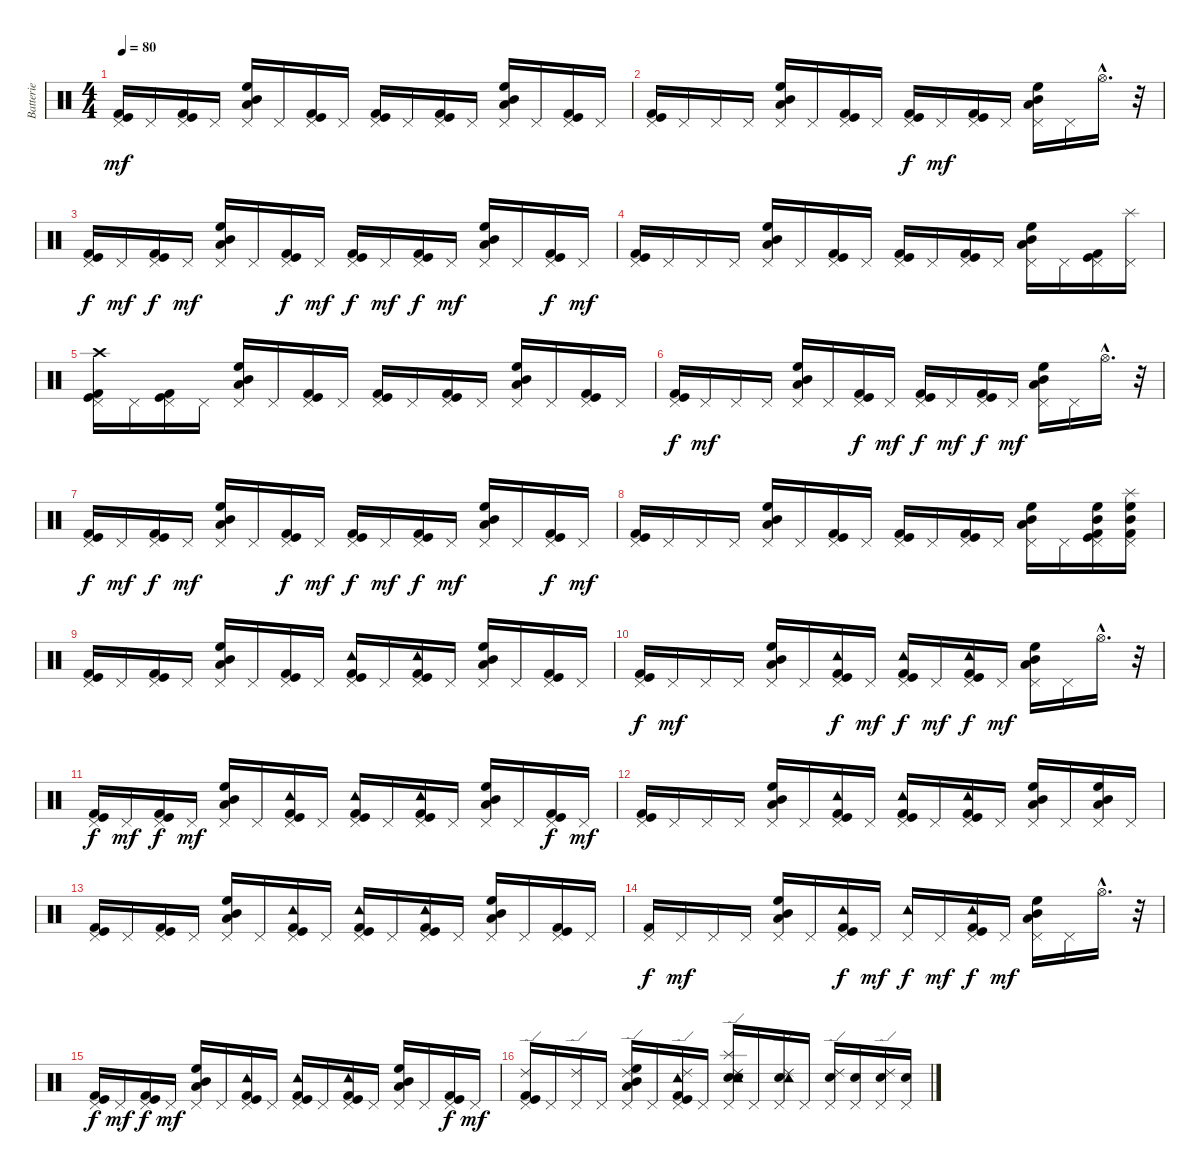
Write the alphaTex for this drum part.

\track ("Batterie" "Batterie") {instrument percussion}
\staff {score}
\articulation defaults
\ts (4 4)
\tempo 80
\clef neutral
\ks c
("Pedal Hi-Hat (hit)" "Kick (hit)" "Kick (hit) 2").16{dy mf} "Pedal Hi-Hat (hit)".16 ("Pedal Hi-Hat (hit)" "Kick (hit)" "Kick (hit) 2").16 "Pedal Hi-Hat (hit)".16 ("Pedal Hi-Hat (hit)" "High Floor Tom (hit)" "Mid Tom (hit)" "Low Tom (hit)").16 "Pedal Hi-Hat (hit)".16 ("Pedal Hi-Hat (hit)" "Kick (hit)" "Kick (hit) 2").16 "Pedal Hi-Hat (hit)".16 ("Pedal Hi-Hat (hit)" "Kick (hit)" "Kick (hit) 2").16 "Pedal Hi-Hat (hit)".16 ("Pedal Hi-Hat (hit)" "Kick (hit)" "Kick (hit) 2").16 "Pedal Hi-Hat (hit)".16 ("Pedal Hi-Hat (hit)" "High Floor Tom (hit)" "Mid Tom (hit)" "Low Tom (hit)").16 "Pedal Hi-Hat (hit)".16 ("Pedal Hi-Hat (hit)" "Kick (hit)" "Kick (hit) 2").16 "Pedal Hi-Hat (hit)".16 |
("Pedal Hi-Hat (hit)" "Kick (hit)" "Kick (hit) 2").16 "Pedal Hi-Hat (hit)".16 "Pedal Hi-Hat (hit)".16 "Pedal Hi-Hat (hit)".16 ("Pedal Hi-Hat (hit)" "High Floor Tom (hit)" "Mid Tom (hit)" "Low Tom (hit)").16 "Pedal Hi-Hat (hit)".16 ("Pedal Hi-Hat (hit)" "Kick (hit)" "Kick (hit) 2").16 "Pedal Hi-Hat (hit)".16 ("Pedal Hi-Hat (hit)" "Kick (hit)" "Kick (hit) 2").16{dy f} "Pedal Hi-Hat (hit)".16{dy mf} ("Pedal Hi-Hat (hit)" "Kick (hit)" "Kick (hit) 2").16 "Pedal Hi-Hat (hit)".16 ("Pedal Hi-Hat (hit)" "High Floor Tom (hit)" "Mid Tom (hit)" "Low Tom (hit)").16 "Pedal Hi-Hat (hit)".16 "Hi-Hat (open)"{hac}.16{d} r.32 |
("Pedal Hi-Hat (hit)" "Kick (hit)" "Kick (hit) 2").16{dy f} "Pedal Hi-Hat (hit)".16{dy mf} ("Pedal Hi-Hat (hit)" "Kick (hit)" "Kick (hit) 2").16{dy f} "Pedal Hi-Hat (hit)".16{dy mf} ("Pedal Hi-Hat (hit)" "High Floor Tom (hit)" "Mid Tom (hit)" "Low Tom (hit)").16 "Pedal Hi-Hat (hit)".16 ("Pedal Hi-Hat (hit)" "Kick (hit)" "Kick (hit) 2").16{dy f} "Pedal Hi-Hat (hit)".16{dy mf} ("Pedal Hi-Hat (hit)" "Kick (hit)" "Kick (hit) 2").16{dy f} "Pedal Hi-Hat (hit)".16{dy mf} ("Pedal Hi-Hat (hit)" "Kick (hit)" "Kick (hit) 2").16{dy f} "Pedal Hi-Hat (hit)".16{dy mf} ("Pedal Hi-Hat (hit)" "High Floor Tom (hit)" "Mid Tom (hit)" "Low Tom (hit)").16 "Pedal Hi-Hat (hit)".16 ("Pedal Hi-Hat (hit)" "Kick (hit)" "Kick (hit) 2").16{dy f} "Pedal Hi-Hat (hit)".16{dy mf} |
("Pedal Hi-Hat (hit)" "Kick (hit)" "Kick (hit) 2").16 "Pedal Hi-Hat (hit)".16 "Pedal Hi-Hat (hit)".16 "Pedal Hi-Hat (hit)".16 ("Pedal Hi-Hat (hit)" "High Floor Tom (hit)" "Mid Tom (hit)" "Low Tom (hit)").16 "Pedal Hi-Hat (hit)".16 ("Pedal Hi-Hat (hit)" "Kick (hit)" "Kick (hit) 2").16 "Pedal Hi-Hat (hit)".16 ("Pedal Hi-Hat (hit)" "Kick (hit)" "Kick (hit) 2").16 "Pedal Hi-Hat (hit)".16 ("Pedal Hi-Hat (hit)" "Kick (hit)" "Kick (hit) 2").16 "Pedal Hi-Hat (hit)".16 ("Pedal Hi-Hat (hit)" "High Floor Tom (hit)" "Mid Tom (hit)" "Low Tom (hit)").16 "Pedal Hi-Hat (hit)".16 ("Pedal Hi-Hat (hit)" "Kick (hit)" "Kick (hit) 2").16 ("Pedal Hi-Hat (hit)" "Splash (hit)").16 |
("Pedal Hi-Hat (hit)" "Crash high (hit)" "Kick (hit)" "Kick (hit) 2").16 "Pedal Hi-Hat (hit)".16 ("Pedal Hi-Hat (hit)" "Kick (hit)" "Kick (hit) 2").16 "Pedal Hi-Hat (hit)".16 ("Pedal Hi-Hat (hit)" "High Floor Tom (hit)" "Mid Tom (hit)" "Low Tom (hit)").16 "Pedal Hi-Hat (hit)".16 ("Pedal Hi-Hat (hit)" "Kick (hit)" "Kick (hit) 2").16 "Pedal Hi-Hat (hit)".16 ("Pedal Hi-Hat (hit)" "Kick (hit)" "Kick (hit) 2").16 "Pedal Hi-Hat (hit)".16 ("Pedal Hi-Hat (hit)" "Kick (hit)" "Kick (hit) 2").16 "Pedal Hi-Hat (hit)".16 ("Pedal Hi-Hat (hit)" "High Floor Tom (hit)" "Mid Tom (hit)" "Low Tom (hit)").16 "Pedal Hi-Hat (hit)".16 ("Pedal Hi-Hat (hit)" "Kick (hit)" "Kick (hit) 2").16 "Pedal Hi-Hat (hit)".16 |
("Pedal Hi-Hat (hit)" "Kick (hit)" "Kick (hit) 2").16{dy f} "Pedal Hi-Hat (hit)".16{dy mf} "Pedal Hi-Hat (hit)".16 "Pedal Hi-Hat (hit)".16 ("Low Tom (hit)" "Mid Tom (hit)" "High Floor Tom (hit)" "Pedal Hi-Hat (hit)").16 "Pedal Hi-Hat (hit)".16 ("Pedal Hi-Hat (hit)" "Kick (hit)" "Kick (hit) 2").16{dy f} "Pedal Hi-Hat (hit)".16{dy mf} ("Pedal Hi-Hat (hit)" "Kick (hit)" "Kick (hit) 2").16{dy f} "Pedal Hi-Hat (hit)".16{dy mf} ("Pedal Hi-Hat (hit)" "Kick (hit)" "Kick (hit) 2").16{dy f} "Pedal Hi-Hat (hit)".16{dy mf} ("Pedal Hi-Hat (hit)" "High Floor Tom (hit)" "Mid Tom (hit)" "Low Tom (hit)").16 "Pedal Hi-Hat (hit)".16 "Hi-Hat (open)"{hac}.16{d} r.32 |
("Pedal Hi-Hat (hit)" "Kick (hit)" "Kick (hit) 2").16{dy f} "Pedal Hi-Hat (hit)".16{dy mf} ("Pedal Hi-Hat (hit)" "Kick (hit)" "Kick (hit) 2").16{dy f} "Pedal Hi-Hat (hit)".16{dy mf} ("Pedal Hi-Hat (hit)" "Mid Tom (hit)" "High Floor Tom (hit)" "Low Tom (hit)").16 "Pedal Hi-Hat (hit)".16 ("Pedal Hi-Hat (hit)" "Kick (hit)" "Kick (hit) 2").16{dy f} "Pedal Hi-Hat (hit)".16{dy mf} ("Pedal Hi-Hat (hit)" "Kick (hit)" "Kick (hit) 2").16{dy f} "Pedal Hi-Hat (hit)".16{dy mf} ("Pedal Hi-Hat (hit)" "Kick (hit)" "Kick (hit) 2").16{dy f} "Pedal Hi-Hat (hit)".16{dy mf} ("Pedal Hi-Hat (hit)" "High Floor Tom (hit)" "Mid Tom (hit)" "Low Tom (hit)").16 "Pedal Hi-Hat (hit)".16 ("Pedal Hi-Hat (hit)" "Kick (hit)" "Kick (hit) 2").16{dy f} "Pedal Hi-Hat (hit)".16{dy mf} |
("Pedal Hi-Hat (hit)" "Kick (hit)" "Kick (hit) 2").16 "Pedal Hi-Hat (hit)".16 "Pedal Hi-Hat (hit)".16 "Pedal Hi-Hat (hit)".16 ("Pedal Hi-Hat (hit)" "High Floor Tom (hit)" "Mid Tom (hit)" "Low Tom (hit)").16 "Pedal Hi-Hat (hit)".16 ("Pedal Hi-Hat (hit)" "Kick (hit)" "Kick (hit) 2").16 "Pedal Hi-Hat (hit)".16 ("Pedal Hi-Hat (hit)" "Kick (hit)" "Kick (hit) 2").16 "Pedal Hi-Hat (hit)".16 ("Pedal Hi-Hat (hit)" "Kick (hit)" "Kick (hit) 2").16 "Pedal Hi-Hat (hit)".16 ("Pedal Hi-Hat (hit)" "High Floor Tom (hit)" "Mid Tom (hit)" "Low Tom (hit)").16 "Pedal Hi-Hat (hit)".16 ("Pedal Hi-Hat (hit)" "High Floor Tom (hit)" "Mid Tom (hit)" "Kick (hit)" "Kick (hit) 2").16 ("Pedal Hi-Hat (hit)" "High Floor Tom (hit)" "Mid Tom (hit)" "Splash (hit)" "Kick (hit) 2").16 |
("Pedal Hi-Hat (hit)" "Kick (hit)" "Kick (hit) 2").16 "Pedal Hi-Hat (hit)".16 ("Pedal Hi-Hat (hit)" "Kick (hit)" "Kick (hit) 2").16 "Pedal Hi-Hat (hit)".16 ("Pedal Hi-Hat (hit)" "High Floor Tom (hit)" "Mid Tom (hit)" "Low Tom (hit)").16 "Pedal Hi-Hat (hit)".16 ("Pedal Hi-Hat (hit)" "Kick (hit)" "Kick (hit) 2").16 "Pedal Hi-Hat (hit)".16 ("Pedal Hi-Hat (hit)" "Tambourine (hit)" "Kick (hit)" "Kick (hit) 2").16 "Pedal Hi-Hat (hit)".16 ("Pedal Hi-Hat (hit)" "Tambourine (hit)" "Kick (hit)" "Kick (hit) 2").16 "Pedal Hi-Hat (hit)".16 ("Pedal Hi-Hat (hit)" "Mid Tom (hit)" "High Floor Tom (hit)" "Low Tom (hit)").16 "Pedal Hi-Hat (hit)".16 ("Pedal Hi-Hat (hit)" "Kick (hit)" "Kick (hit) 2").16 "Pedal Hi-Hat (hit)".16 |
("Pedal Hi-Hat (hit)" "Kick (hit)" "Kick (hit) 2").16{dy f} "Pedal Hi-Hat (hit)".16{dy mf} "Pedal Hi-Hat (hit)".16 "Pedal Hi-Hat (hit)".16 ("Pedal Hi-Hat (hit)" "High Floor Tom (hit)" "Mid Tom (hit)" "Low Tom (hit)").16 "Pedal Hi-Hat (hit)".16 ("Pedal Hi-Hat (hit)" "Tambourine (hit)" "Kick (hit)" "Kick (hit) 2").16{dy f} "Pedal Hi-Hat (hit)".16{dy mf} ("Pedal Hi-Hat (hit)" "Tambourine (hit)" "Kick (hit)" "Kick (hit) 2").16{dy f} "Pedal Hi-Hat (hit)".16{dy mf} ("Pedal Hi-Hat (hit)" "Tambourine (hit)" "Kick (hit)" "Kick (hit) 2").16{dy f} "Pedal Hi-Hat (hit)".16{dy mf} ("Pedal Hi-Hat (hit)" "High Floor Tom (hit)" "Mid Tom (hit)" "Low Tom (hit)").16 "Pedal Hi-Hat (hit)".16 "Hi-Hat (open)"{hac}.16{d} r.32 |
("Pedal Hi-Hat (hit)" "Kick (hit)" "Kick (hit) 2").16{dy f} "Pedal Hi-Hat (hit)".16{dy mf} ("Pedal Hi-Hat (hit)" "Kick (hit)" "Kick (hit) 2").16{dy f} "Pedal Hi-Hat (hit)".16{dy mf} ("Pedal Hi-Hat (hit)" "High Floor Tom (hit)" "Mid Tom (hit)" "Low Tom (hit)").16 "Pedal Hi-Hat (hit)".16 ("Pedal Hi-Hat (hit)" "Tambourine (hit)" "Kick (hit)" "Kick (hit) 2").16 "Pedal Hi-Hat (hit)".16 ("Pedal Hi-Hat (hit)" "Tambourine (hit)" "Kick (hit)" "Kick (hit) 2").16 "Pedal Hi-Hat (hit)".16 ("Pedal Hi-Hat (hit)" "Tambourine (hit)" "Kick (hit)" "Kick (hit) 2").16 "Pedal Hi-Hat (hit)".16 ("Pedal Hi-Hat (hit)" "High Floor Tom (hit)" "Mid Tom (hit)" "Low Tom (hit)").16 "Pedal Hi-Hat (hit)".16 ("Pedal Hi-Hat (hit)" "Kick (hit)" "Kick (hit) 2").16{dy f} "Pedal Hi-Hat (hit)".16{dy mf} |
("Pedal Hi-Hat (hit)" "Kick (hit)" "Kick (hit) 2").16 "Pedal Hi-Hat (hit)".16 "Pedal Hi-Hat (hit)".16 "Pedal Hi-Hat (hit)".16 ("Pedal Hi-Hat (hit)" "High Floor Tom (hit)" "Mid Tom (hit)" "Low Tom (hit)").16 "Pedal Hi-Hat (hit)".16 ("Pedal Hi-Hat (hit)" "Tambourine (hit)" "Kick (hit)" "Kick (hit) 2").16 "Pedal Hi-Hat (hit)".16 ("Pedal Hi-Hat (hit)" "Tambourine (hit)" "Kick (hit)" "Kick (hit) 2").16 "Pedal Hi-Hat (hit)".16 ("Pedal Hi-Hat (hit)" "Tambourine (hit)" "Kick (hit)" "Kick (hit) 2").16 "Pedal Hi-Hat (hit)".16 ("Pedal Hi-Hat (hit)" "High Floor Tom (hit)" "Mid Tom (hit)" "Low Tom (hit)").16 "Pedal Hi-Hat (hit)".16 ("Pedal Hi-Hat (hit)" "High Floor Tom (hit)" "Mid Tom (hit)" "Low Tom (hit)").16 "Pedal Hi-Hat (hit)".16 |
("Pedal Hi-Hat (hit)" "Kick (hit)" "Kick (hit) 2").16 "Pedal Hi-Hat (hit)".16 ("Pedal Hi-Hat (hit)" "Kick (hit)" "Kick (hit) 2").16 "Pedal Hi-Hat (hit)".16 ("Pedal Hi-Hat (hit)" "High Floor Tom (hit)" "Mid Tom (hit)" "Low Tom (hit)").16 "Pedal Hi-Hat (hit)".16 ("Pedal Hi-Hat (hit)" "Tambourine (hit)" "Kick (hit)" "Kick (hit) 2").16 "Pedal Hi-Hat (hit)".16 ("Pedal Hi-Hat (hit)" "Tambourine (hit)" "Kick (hit)" "Kick (hit) 2").16 "Pedal Hi-Hat (hit)".16 ("Pedal Hi-Hat (hit)" "Tambourine (hit)" "Kick (hit)" "Kick (hit) 2").16 "Pedal Hi-Hat (hit)".16 ("Pedal Hi-Hat (hit)" "High Floor Tom (hit)" "Mid Tom (hit)" "Low Tom (hit)").16 "Pedal Hi-Hat (hit)".16 ("Pedal Hi-Hat (hit)" "Kick (hit)" "Kick (hit) 2").16 "Pedal Hi-Hat (hit)".16 |
("Pedal Hi-Hat (hit)" "Kick (hit) 2").16{dy f} "Pedal Hi-Hat (hit)".16{dy mf} "Pedal Hi-Hat (hit)".16 "Pedal Hi-Hat (hit)".16 ("Pedal Hi-Hat (hit)" "High Floor Tom (hit)" "Mid Tom (hit)" "Low Tom (hit)").16 "Pedal Hi-Hat (hit)".16 ("Pedal Hi-Hat (hit)" "Tambourine (hit)" "Kick (hit)" "Kick (hit) 2").16{dy f} "Pedal Hi-Hat (hit)".16{dy mf} ("Pedal Hi-Hat (hit)" "Tambourine (hit)").16{dy f} "Pedal Hi-Hat (hit)".16{dy mf} ("Pedal Hi-Hat (hit)" "Tambourine (hit)" "Kick (hit)" "Kick (hit) 2").16{dy f} "Pedal Hi-Hat (hit)".16{dy mf} ("Pedal Hi-Hat (hit)" "High Floor Tom (hit)" "Mid Tom (hit)" "Low Tom (hit)").16 "Pedal Hi-Hat (hit)".16 "Hi-Hat (open)"{hac}.16{d} r.32 |
("Pedal Hi-Hat (hit)" "Kick (hit)" "Kick (hit) 2").16{dy f} "Pedal Hi-Hat (hit)".16{dy mf} ("Pedal Hi-Hat (hit)" "Kick (hit)" "Kick (hit) 2").16{dy f} "Pedal Hi-Hat (hit)".16{dy mf} ("Pedal Hi-Hat (hit)" "High Floor Tom (hit)" "Mid Tom (hit)" "Low Tom (hit)").16 "Pedal Hi-Hat (hit)".16 ("Pedal Hi-Hat (hit)" "Tambourine (hit)" "Kick (hit)" "Kick (hit) 2").16 "Pedal Hi-Hat (hit)".16 ("Pedal Hi-Hat (hit)" "Tambourine (hit)" "Kick (hit)" "Kick (hit) 2").16 "Pedal Hi-Hat (hit)".16 ("Pedal Hi-Hat (hit)" "Tambourine (hit)" "Kick (hit)" "Kick (hit) 2").16 "Pedal Hi-Hat (hit)".16 ("Pedal Hi-Hat (hit)" "High Floor Tom (hit)" "Mid Tom (hit)" "Low Tom (hit)").16 "Pedal Hi-Hat (hit)".16 ("Pedal Hi-Hat (hit)" "Kick (hit)" "Kick (hit) 2").16{dy f} "Pedal Hi-Hat (hit)".16{dy mf} |
("Pedal Hi-Hat (hit)" "Ride (edge) 2" "Kick (hit)" "Kick (hit) 2").16 "Pedal Hi-Hat (hit)".16 ("Pedal Hi-Hat (hit)" "Ride (edge) 2").16 "Pedal Hi-Hat (hit)".16 ("Pedal Hi-Hat (hit)" "Ride (edge) 2" "High Floor Tom (hit)" "Mid Tom (hit)" "Low Tom (hit)").16 "Pedal Hi-Hat (hit)".16 ("Pedal Hi-Hat (hit)" "Ride (edge) 2" "Tambourine (hit)" "Kick (hit)" "Kick (hit) 2").16 "Pedal Hi-Hat (hit)".16 ("Pedal Hi-Hat (hit)" "Ride (edge) 2" "Snare (hit) 2" "Splash (hit)" "Tambourine (hit)" "Electric Snare (hit)").16 "Pedal Hi-Hat (hit)".16 ("Pedal Hi-Hat (hit)" "Ride (edge) 2" "Snare (hit) 2" "Tambourine (hit)").16 "Pedal Hi-Hat (hit)".16 ("Pedal Hi-Hat (hit)" "Ride (edge) 2" "Snare (hit) 2").16 ("Pedal Hi-Hat (hit)" "Snare (hit) 2").16 ("Pedal Hi-Hat (hit)" "Ride (edge) 2" "Snare (hit) 2").16 ("Pedal Hi-Hat (hit)" "Snare (hit) 2").16
